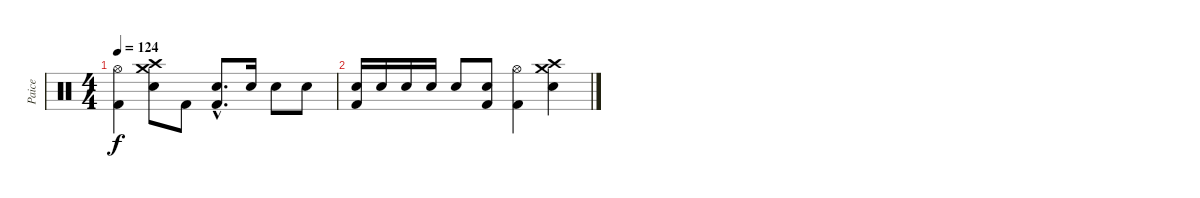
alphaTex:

\track ("Paice" "Paice") {instrument percussion}
\staff {score}
\articulation defaults
\ts (4 4)
\tempo 124
\clef neutral
\ks c
("Hi-Hat (open)" "Kick (hit) 2").4{dy f} ("Crash high (hit)" "Crash medium (hit)" "Electric Snare (hit)").8 "Kick (hit) 2".8 ("Electric Snare (hit)"{hac} "Kick (hit) 2"{hac}).8{d} "Electric Snare (hit)".16 "Electric Snare (hit)".8 "Electric Snare (hit)".8 |
("Electric Snare (hit)" "Kick (hit) 2").16 "Electric Snare (hit)".16 "Electric Snare (hit)".16 "Electric Snare (hit)".16 "Electric Snare (hit)".8 ("Electric Snare (hit)" "Kick (hit) 2").8 ("Hi-Hat (open)" "Kick (hit) 2").4 ("Crash high (hit)" "Crash medium (hit)" "Electric Snare (hit)").4
